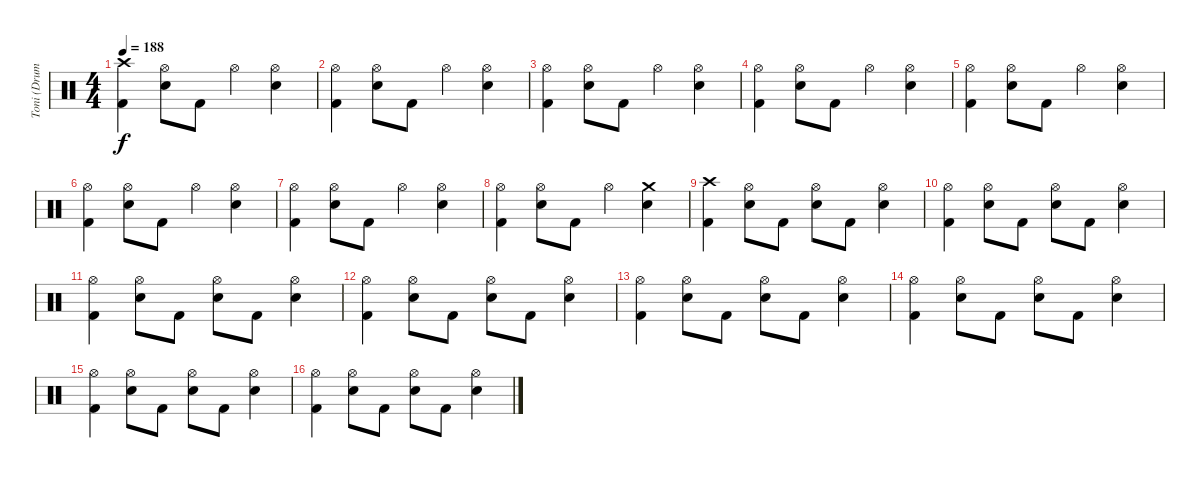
\track ("Toni (Drums)" "Toni (Drum") {instrument percussion}
\staff {score}
\articulation defaults
\ts (4 4)
\tempo 188
\clef neutral
\ks c
("Crash high (hit)" "Kick (hit) 2").4{dy f} ("Hi-Hat (open)" "Electric Snare (hit)").8 "Kick (hit) 2".8 "Hi-Hat (open)".4 ("Hi-Hat (open)" "Electric Snare (hit)").4 |
("Hi-Hat (open)" "Kick (hit) 2").4 ("Hi-Hat (open)" "Electric Snare (hit)").8 "Kick (hit) 2".8 "Hi-Hat (open)".4 ("Hi-Hat (open)" "Electric Snare (hit)").4 |
("Hi-Hat (open)" "Kick (hit) 2").4 ("Hi-Hat (open)" "Electric Snare (hit)").8 "Kick (hit) 2".8 "Hi-Hat (open)".4 ("Hi-Hat (open)" "Electric Snare (hit)").4 |
("Hi-Hat (open)" "Kick (hit) 2").4 ("Hi-Hat (open)" "Electric Snare (hit)").8 "Kick (hit) 2".8 "Hi-Hat (open)".4 ("Hi-Hat (open)" "Electric Snare (hit)").4 |
("Hi-Hat (open)" "Kick (hit) 2").4 ("Hi-Hat (open)" "Electric Snare (hit)").8 "Kick (hit) 2".8 "Hi-Hat (open)".4 ("Hi-Hat (open)" "Electric Snare (hit)").4 |
("Hi-Hat (open)" "Kick (hit) 2").4 ("Hi-Hat (open)" "Electric Snare (hit)").8 "Kick (hit) 2".8 "Hi-Hat (open)".4 ("Hi-Hat (open)" "Electric Snare (hit)").4 |
("Hi-Hat (open)" "Kick (hit) 2").4 ("Hi-Hat (open)" "Electric Snare (hit)").8 "Kick (hit) 2".8 "Hi-Hat (open)".4 ("Hi-Hat (open)" "Electric Snare (hit)").4 |
("Hi-Hat (open)" "Kick (hit) 2").4 ("Hi-Hat (open)" "Electric Snare (hit)").8 "Kick (hit) 2".8 "Hi-Hat (open)".4 ("Crash medium (hit)" "Electric Snare (hit)").4 |
("Crash high (hit)" "Kick (hit) 2").4 ("Hi-Hat (open)" "Electric Snare (hit)").8 "Kick (hit) 2".8 ("Hi-Hat (open)" "Electric Snare (hit)").8 "Kick (hit) 2".8 ("Hi-Hat (open)" "Electric Snare (hit)").4 |
("Hi-Hat (open)" "Kick (hit) 2").4 ("Hi-Hat (open)" "Electric Snare (hit)").8 "Kick (hit) 2".8 ("Hi-Hat (open)" "Electric Snare (hit)").8 "Kick (hit) 2".8 ("Hi-Hat (open)" "Electric Snare (hit)").4 |
("Hi-Hat (open)" "Kick (hit) 2").4 ("Hi-Hat (open)" "Electric Snare (hit)").8 "Kick (hit) 2".8 ("Hi-Hat (open)" "Electric Snare (hit)").8 "Kick (hit) 2".8 ("Hi-Hat (open)" "Electric Snare (hit)").4 |
("Hi-Hat (open)" "Kick (hit) 2").4 ("Hi-Hat (open)" "Electric Snare (hit)").8 "Kick (hit) 2".8 ("Hi-Hat (open)" "Electric Snare (hit)").8 "Kick (hit) 2".8 ("Hi-Hat (open)" "Electric Snare (hit)").4 |
("Hi-Hat (open)" "Kick (hit) 2").4 ("Hi-Hat (open)" "Electric Snare (hit)").8 "Kick (hit) 2".8 ("Hi-Hat (open)" "Electric Snare (hit)").8 "Kick (hit) 2".8 ("Hi-Hat (open)" "Electric Snare (hit)").4 |
("Hi-Hat (open)" "Kick (hit) 2").4 ("Hi-Hat (open)" "Electric Snare (hit)").8 "Kick (hit) 2".8 ("Hi-Hat (open)" "Electric Snare (hit)").8 "Kick (hit) 2".8 ("Hi-Hat (open)" "Electric Snare (hit)").4 |
("Hi-Hat (open)" "Kick (hit) 2").4 ("Hi-Hat (open)" "Electric Snare (hit)").8 "Kick (hit) 2".8 ("Hi-Hat (open)" "Electric Snare (hit)").8 "Kick (hit) 2".8 ("Hi-Hat (open)" "Electric Snare (hit)").4 |
("Hi-Hat (open)" "Kick (hit) 2").4 ("Hi-Hat (open)" "Electric Snare (hit)").8 "Kick (hit) 2".8 ("Hi-Hat (open)" "Electric Snare (hit)").8 "Kick (hit) 2".8 ("Hi-Hat (open)" "Electric Snare (hit)").4
